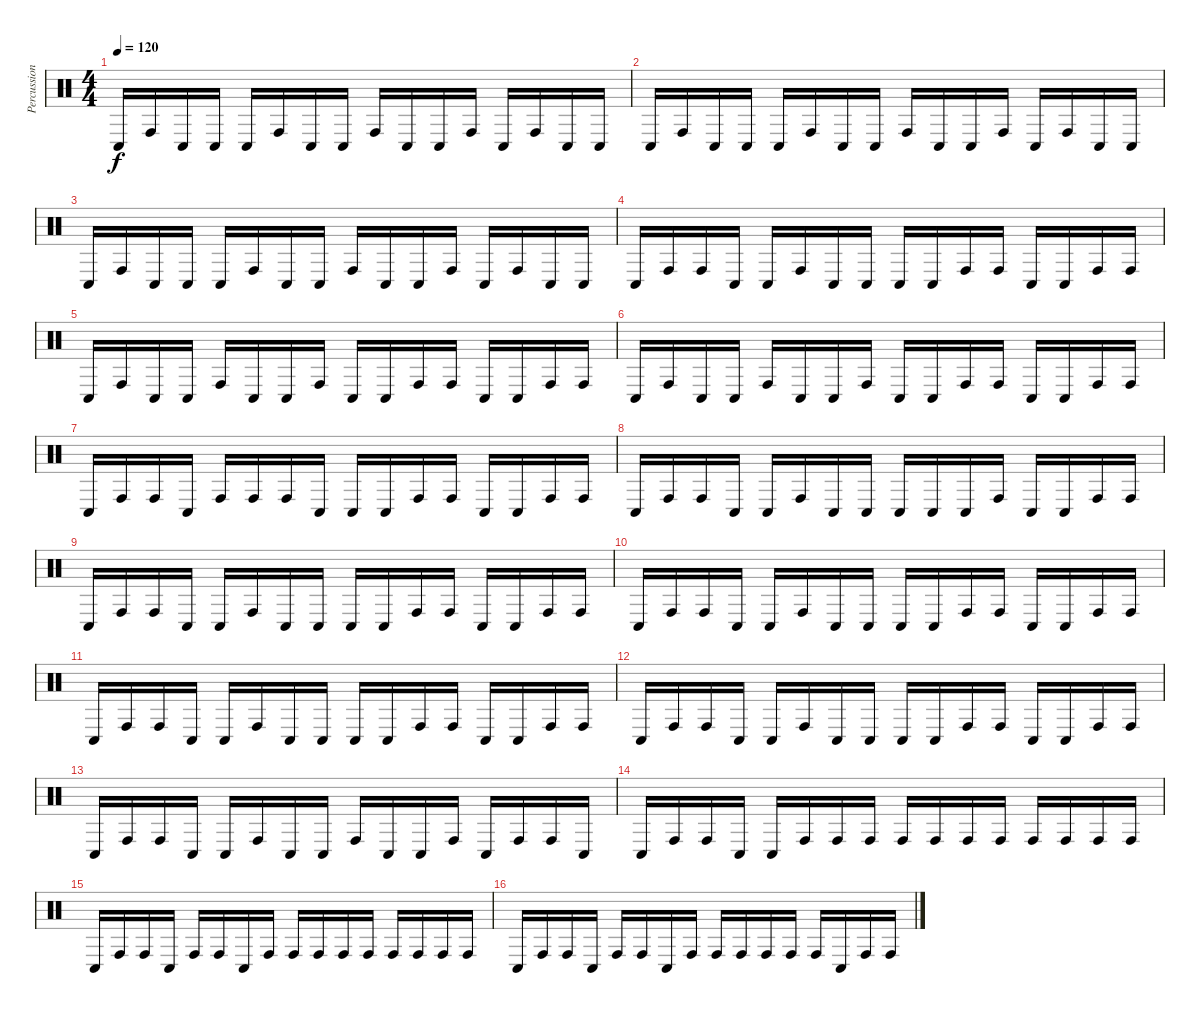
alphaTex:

\track ("Percussions" "Percussion") {instrument percussion}
\staff {score}
\articulation defaults
\ts (4 4)
\tempo 120
\clef neutral
\ks c "Conga low (hit)".16{dy f} "Conga high (hit)".16 "Conga low (hit)".16 "Conga low (hit)".16 "Conga low (hit)".16 "Conga high (hit)".16 "Conga low (hit)".16 "Conga low (hit)".16 "Conga high (hit)".16 "Conga low (hit)".16 "Conga low (hit)".16 "Conga high (hit)".16 "Conga low (hit)".16 "Conga high (hit)".16 "Conga low (hit)".16 "Conga low (hit)".16
|
"Conga low (hit)".16 "Conga high (hit)".16 "Conga low (hit)".16 "Conga low (hit)".16 "Conga low (hit)".16 "Conga high (hit)".16 "Conga low (hit)".16 "Conga low (hit)".16 "Conga high (hit)".16 "Conga low (hit)".16 "Conga low (hit)".16 "Conga high (hit)".16 "Conga low (hit)".16 "Conga high (hit)".16 "Conga low (hit)".16 "Conga low (hit)".16 |
"Conga low (hit)".16 "Conga high (hit)".16 "Conga low (hit)".16 "Conga low (hit)".16 "Conga low (hit)".16 "Conga high (hit)".16 "Conga low (hit)".16 "Conga low (hit)".16 "Conga high (hit)".16 "Conga low (hit)".16 "Conga low (hit)".16 "Conga high (hit)".16 "Conga low (hit)".16 "Conga high (hit)".16 "Conga low (hit)".16 "Conga low (hit)".16 |
"Conga low (hit)".16 "Conga high (hit)".16 "Conga high (hit)".16 "Conga low (hit)".16 "Conga low (hit)".16 "Conga high (hit)".16 "Conga low (hit)".16 "Conga low (hit)".16 "Conga low (hit)".16 "Conga low (hit)".16 "Conga high (hit)".16 "Conga high (hit)".16 "Conga low (hit)".16 "Conga low (hit)".16 "Conga high (hit)".16 "Conga high (hit)".16 |
"Conga low (hit)".16 "Conga high (hit)".16 "Conga low (hit)".16 "Conga low (hit)".16 "Conga high (hit)".16 "Conga low (hit)".16 "Conga low (hit)".16 "Conga high (hit)".16 "Conga low (hit)".16 "Conga low (hit)".16 "Conga high (hit)".16 "Conga high (hit)".16 "Conga low (hit)".16 "Conga low (hit)".16 "Conga high (hit)".16 "Conga high (hit)".16 |
"Conga low (hit)".16 "Conga high (hit)".16 "Conga low (hit)".16 "Conga low (hit)".16 "Conga high (hit)".16 "Conga low (hit)".16 "Conga low (hit)".16 "Conga high (hit)".16 "Conga low (hit)".16 "Conga low (hit)".16 "Conga high (hit)".16 "Conga high (hit)".16 "Conga low (hit)".16 "Conga low (hit)".16 "Conga high (hit)".16 "Conga high (hit)".16 |
"Conga low (hit)".16 "Conga high (hit)".16 "Conga high (hit)".16 "Conga low (hit)".16 "Conga high (hit)".16 "Conga high (hit)".16 "Conga high (hit)".16 "Conga low (hit)".16 "Conga low (hit)".16 "Conga low (hit)".16 "Conga high (hit)".16 "Conga high (hit)".16 "Conga low (hit)".16 "Conga low (hit)".16 "Conga high (hit)".16 "Conga high (hit)".16 |
"Conga low (hit)".16 "Conga high (hit)".16 "Conga high (hit)".16 "Conga low (hit)".16 "Conga low (hit)".16 "Conga high (hit)".16 "Conga low (hit)".16 "Conga low (hit)".16 "Conga low (hit)".16 "Conga low (hit)".16 "Conga low (hit)".16 "Conga high (hit)".16 "Conga low (hit)".16 "Conga low (hit)".16 "Conga high (hit)".16 "Conga high (hit)".16 |
"Conga low (hit)".16 "Conga high (hit)".16 "Conga high (hit)".16 "Conga low (hit)".16 "Conga low (hit)".16 "Conga high (hit)".16 "Conga low (hit)".16 "Conga low (hit)".16 "Conga low (hit)".16 "Conga low (hit)".16 "Conga high (hit)".16 "Conga high (hit)".16 "Conga low (hit)".16 "Conga low (hit)".16 "Conga high (hit)".16 "Conga high (hit)".16 |
"Conga low (hit)".16 "Conga high (hit)".16 "Conga high (hit)".16 "Conga low (hit)".16 "Conga low (hit)".16 "Conga high (hit)".16 "Conga low (hit)".16 "Conga low (hit)".16 "Conga low (hit)".16 "Conga low (hit)".16 "Conga high (hit)".16 "Conga high (hit)".16 "Conga low (hit)".16 "Conga low (hit)".16 "Conga high (hit)".16 "Conga high (hit)".16 |
"Conga low (hit)".16 "Conga high (hit)".16 "Conga high (hit)".16 "Conga low (hit)".16 "Conga low (hit)".16 "Conga high (hit)".16 "Conga low (hit)".16 "Conga low (hit)".16 "Conga low (hit)".16 "Conga low (hit)".16 "Conga high (hit)".16 "Conga high (hit)".16 "Conga low (hit)".16 "Conga low (hit)".16 "Conga high (hit)".16 "Conga high (hit)".16 |
"Conga low (hit)".16 "Conga high (hit)".16 "Conga high (hit)".16 "Conga low (hit)".16 "Conga low (hit)".16 "Conga high (hit)".16 "Conga low (hit)".16 "Conga low (hit)".16 "Conga low (hit)".16 "Conga low (hit)".16 "Conga high (hit)".16 "Conga high (hit)".16 "Conga low (hit)".16 "Conga low (hit)".16 "Conga high (hit)".16 "Conga high (hit)".16 |
"Conga low (hit)".16 "Conga high (hit)".16 "Conga high (hit)".16 "Conga low (hit)".16 "Conga low (hit)".16 "Conga high (hit)".16 "Conga low (hit)".16 "Conga low (hit)".16 "Conga high (hit)".16 "Conga low (hit)".16 "Conga low (hit)".16 "Conga high (hit)".16 "Conga low (hit)".16 "Conga high (hit)".16 "Conga high (hit)".16 "Conga low (hit)".16 |
"Conga low (hit)".16 "Conga high (hit)".16 "Conga high (hit)".16 "Conga low (hit)".16 "Conga low (hit)".16 "Conga high (hit)".16 "Conga high (hit)".16 "Conga high (hit)".16 "Conga high (hit)".16 "Conga high (hit)".16 "Conga high (hit)".16 "Conga high (hit)".16 "Conga high (hit)".16 "Conga high (hit)".16 "Conga high (hit)".16 "Conga high (hit)".16 |
"Conga low (hit)".16 "Conga high (hit)".16 "Conga high (hit)".16 "Conga low (hit)".16 "Conga high (hit)".16 "Conga high (hit)".16 "Conga low (hit)".16 "Conga high (hit)".16 "Conga high (hit)".16 "Conga high (hit)".16 "Conga high (hit)".16 "Conga high (hit)".16 "Conga high (hit)".16 "Conga high (hit)".16 "Conga high (hit)".16 "Conga high (hit)".16 |
"Conga low (hit)".16 "Conga high (hit)".16 "Conga high (hit)".16 "Conga low (hit)".16 "Conga high (hit)".16 "Conga high (hit)".16 "Conga low (hit)".16 "Conga high (hit)".16 "Conga high (hit)".16 "Conga high (hit)".16 "Conga high (hit)".16 "Conga high (hit)".16 "Conga high (hit)".16 "Conga low (hit)".16 "Conga high (hit)".16 "Conga high (hit)".16
